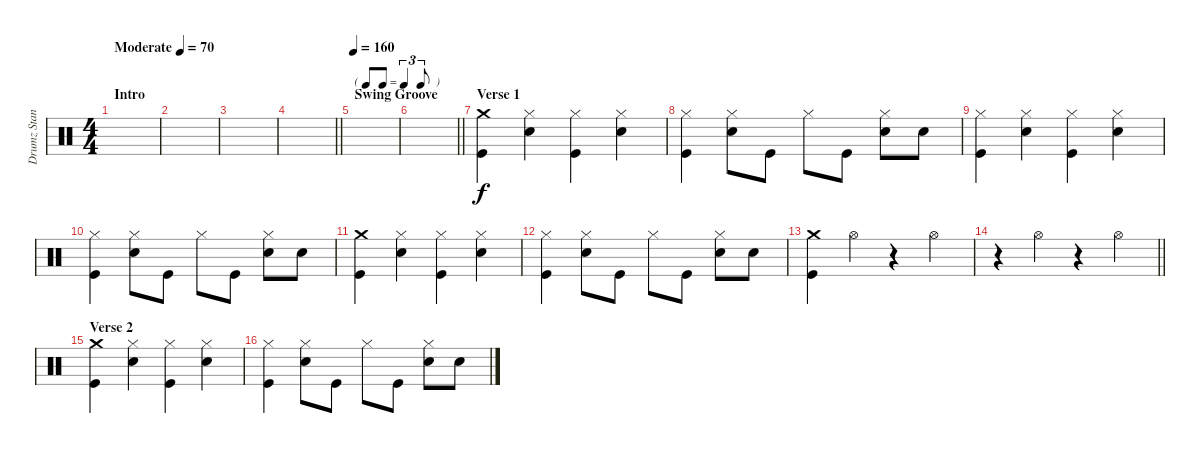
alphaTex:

\track ("Drumz Standard" "Drumz Stan") {instrument percussion}
\staff {score}
\articulation defaults
\ts (4 4)
\section ("" "Intro")
\tempo (70 "Moderate")
\clef neutral
\ks c
|
|
|
\barLineRight lightlight
|
\tf triplet8th
\section ("" "Swing Groove")
\tempo 160
|
\barLineRight lightlight
|
\section ("" "Verse 1")
("Crash medium (hit)" "Kick (hit)").4 ("Hi-Hat (closed)" "Electric Snare (hit)").4 ("Hi-Hat (closed)" "Kick (hit)").4 ("Hi-Hat (closed)" "Electric Snare (hit)").4 |
("Hi-Hat (closed)" "Kick (hit)").4 ("Hi-Hat (closed)" "Electric Snare (hit)").8 "Kick (hit)".8 "Hi-Hat (closed)".8 "Kick (hit)".8 ("Hi-Hat (closed)" "Electric Snare (hit)").8 "Electric Snare (hit)".8 |
("Hi-Hat (closed)" "Kick (hit)").4 ("Hi-Hat (closed)" "Electric Snare (hit)").4 ("Hi-Hat (closed)" "Kick (hit)").4 ("Hi-Hat (closed)" "Electric Snare (hit)").4 |
("Hi-Hat (closed)" "Kick (hit)").4 ("Hi-Hat (closed)" "Electric Snare (hit)").8 "Kick (hit)".8 "Hi-Hat (closed)".8 "Kick (hit)".8 ("Hi-Hat (closed)" "Electric Snare (hit)").8 "Electric Snare (hit)".8 |
("Crash medium (hit)" "Kick (hit)").4 ("Hi-Hat (closed)" "Electric Snare (hit)").4 ("Hi-Hat (closed)" "Kick (hit)").4 ("Hi-Hat (closed)" "Electric Snare (hit)").4 |
("Hi-Hat (closed)" "Kick (hit)").4 ("Hi-Hat (closed)" "Electric Snare (hit)").8 "Kick (hit)".8 "Hi-Hat (closed)".8 "Kick (hit)".8 ("Hi-Hat (closed)" "Electric Snare (hit)").8 "Electric Snare (hit)".8 |
("Crash medium (hit)" "Kick (hit)").4 "Hi-Hat (open)".4 r.4 "Hi-Hat (open)".4 |
\barLineRight lightlight
r.4 "Hi-Hat (open)".4 r.4 "Hi-Hat (open)".4 |
\section ("" "Verse 2")
("Crash medium (hit)" "Kick (hit)").4 ("Hi-Hat (closed)" "Electric Snare (hit)").4 ("Hi-Hat (closed)" "Kick (hit)").4 ("Hi-Hat (closed)" "Electric Snare (hit)").4 |
("Hi-Hat (closed)" "Kick (hit)").4 ("Hi-Hat (closed)" "Electric Snare (hit)").8 "Kick (hit)".8 "Hi-Hat (closed)".8 "Kick (hit)".8 ("Hi-Hat (closed)" "Electric Snare (hit)").8 "Electric Snare (hit)".8
